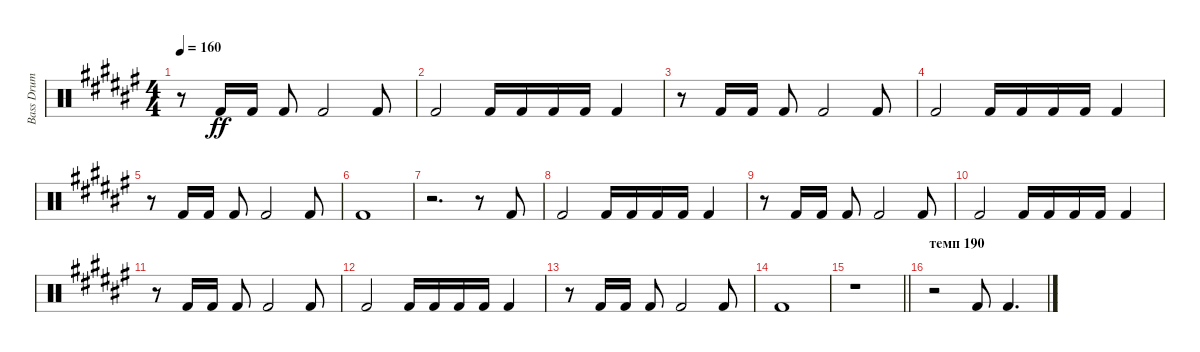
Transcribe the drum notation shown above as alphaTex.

\track ("Bass Drum" "Bass Drum") {instrument percussion}
\staff {score}
\articulation defaults
\ts (4 4)
\tempo 160
\clef neutral
\ks d#minor
r.8{dy ff} "Kick (hit) 2".16 "Kick (hit) 2".16 "Kick (hit) 2".8 "Kick (hit) 2".2 "Kick (hit) 2".8 |
"Kick (hit) 2".2 "Kick (hit) 2".16 "Kick (hit) 2".16 "Kick (hit) 2".16 "Kick (hit) 2".16 "Kick (hit) 2".4 |
r.8 "Kick (hit) 2".16 "Kick (hit) 2".16 "Kick (hit) 2".8 "Kick (hit) 2".2 "Kick (hit) 2".8 |
"Kick (hit) 2".2 "Kick (hit) 2".16 "Kick (hit) 2".16 "Kick (hit) 2".16 "Kick (hit) 2".16 "Kick (hit) 2".4 |
r.8 "Kick (hit) 2".16 "Kick (hit) 2".16 "Kick (hit) 2".8 "Kick (hit) 2".2 "Kick (hit) 2".8 |
"Kick (hit) 2".1 |
r.2{d} r.8 "Kick (hit) 2".8 |
"Kick (hit) 2".2 "Kick (hit) 2".16 "Kick (hit) 2".16 "Kick (hit) 2".16 "Kick (hit) 2".16 "Kick (hit) 2".4 |
r.8 "Kick (hit) 2".16 "Kick (hit) 2".16 "Kick (hit) 2".8 "Kick (hit) 2".2 "Kick (hit) 2".8 |
"Kick (hit) 2".2 "Kick (hit) 2".16 "Kick (hit) 2".16 "Kick (hit) 2".16 "Kick (hit) 2".16 "Kick (hit) 2".4 |
r.8 "Kick (hit) 2".16 "Kick (hit) 2".16 "Kick (hit) 2".8 "Kick (hit) 2".2 "Kick (hit) 2".8 |
"Kick (hit) 2".2 "Kick (hit) 2".16 "Kick (hit) 2".16 "Kick (hit) 2".16 "Kick (hit) 2".16 "Kick (hit) 2".4 |
r.8 "Kick (hit) 2".16 "Kick (hit) 2".16 "Kick (hit) 2".8 "Kick (hit) 2".2 "Kick (hit) 2".8 |
"Kick (hit) 2".1 |
\barLineRight lightlight
r.1 |
\section ("" "темп 190")
r.2 "Kick (hit) 2".8 "Kick (hit) 2".4{d}
